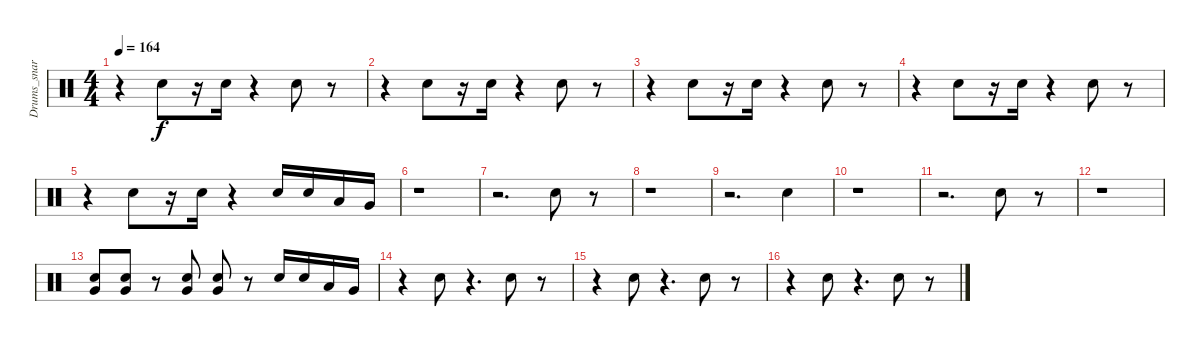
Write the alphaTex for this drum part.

\track ("Drums_snare&tom" "Drums_snar") {instrument percussion}
\staff {score}
\articulation defaults
\ts (4 4)
\tempo 164
\clef neutral
\ks c
r.4{dy f} "Snare (hit) 2".8 r.16 "Snare (hit) 2".16 r.4 "Snare (hit) 2".8 r.8 |
r.4 "Snare (hit) 2".8 r.16 "Snare (hit) 2".16 r.4 "Snare (hit) 2".8 r.8 |
r.4 "Snare (hit) 2".8 r.16 "Snare (hit) 2".16 r.4 "Snare (hit) 2".8 r.8 |
r.4 "Snare (hit) 2".8 r.16 "Snare (hit) 2".16 r.4 "Snare (hit) 2".8 r.8 |
r.4 "Snare (hit) 2".8 r.16 "Snare (hit) 2".16 r.4 "Snare (hit) 2".16 "Snare (hit) 2".16 "Low Tom (hit)".16 "Very Low Tom (hit)".16 |
r.1 |
r.2{d} "Snare (hit) 2".8 r.8 |
r.1 |
r.2{d} "Snare (hit) 2".4 |
r.1 |
r.2{d} "Snare (hit) 2".8 r.8 |
r.1 |
("Snare (hit) 2" "Very Low Tom (hit)").8 ("Snare (hit) 2" "Very Low Tom (hit)").8 r.8 ("Snare (hit) 2" "Very Low Tom (hit)").8 ("Snare (hit) 2" "Very Low Tom (hit)").8 r.8 "Snare (hit) 2".16 "Snare (hit) 2".16 "Low Tom (hit)".16 "Very Low Tom (hit)".16 |
r.4 "Snare (hit) 2".8 r.4{d} "Snare (hit) 2".8 r.8 |
r.4 "Snare (hit) 2".8 r.4{d} "Snare (hit) 2".8 r.8 |
r.4 "Snare (hit) 2".8 r.4{d} "Snare (hit) 2".8 r.8
